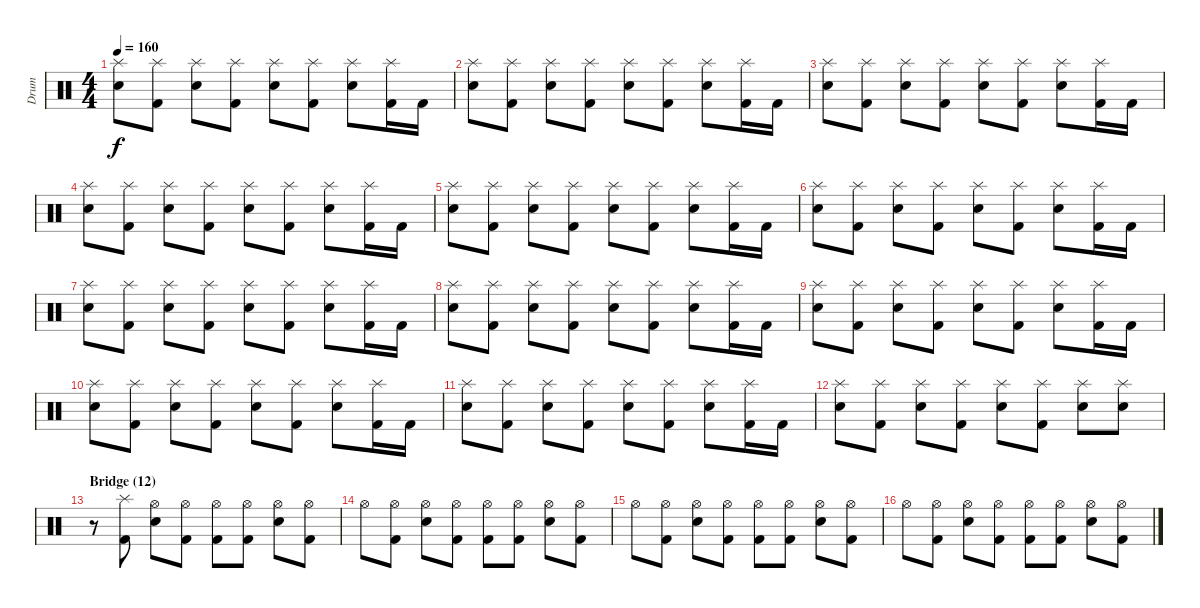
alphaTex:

\track ("Drum" "Drum") {instrument percussion}
\staff {score}
\articulation defaults
\ts (4 4)
\tempo 160
\clef neutral
\ks c
("Splash (hit)" "Snare (hit) 2").8{dy f} ("Splash (hit)" "Kick (hit) 2").8 ("Splash (hit)" "Snare (hit) 2").8 ("Splash (hit)" "Kick (hit) 2").8 ("Splash (hit)" "Snare (hit) 2").8 ("Splash (hit)" "Kick (hit) 2").8 ("Splash (hit)" "Snare (hit) 2").8 ("Splash (hit)" "Kick (hit) 2").16 "Kick (hit) 2".16 |
("Splash (hit)" "Snare (hit) 2").8 ("Splash (hit)" "Kick (hit) 2").8 ("Splash (hit)" "Snare (hit) 2").8 ("Splash (hit)" "Kick (hit) 2").8 ("Splash (hit)" "Snare (hit) 2").8 ("Splash (hit)" "Kick (hit) 2").8 ("Splash (hit)" "Snare (hit) 2").8 ("Splash (hit)" "Kick (hit) 2").16 "Kick (hit) 2".16 |
("Splash (hit)" "Snare (hit) 2").8 ("Splash (hit)" "Kick (hit) 2").8 ("Splash (hit)" "Snare (hit) 2").8 ("Splash (hit)" "Kick (hit) 2").8 ("Splash (hit)" "Snare (hit) 2").8 ("Splash (hit)" "Kick (hit) 2").8 ("Splash (hit)" "Snare (hit) 2").8 ("Splash (hit)" "Kick (hit) 2").16 "Kick (hit) 2".16 |
("Splash (hit)" "Snare (hit) 2").8 ("Splash (hit)" "Kick (hit) 2").8 ("Splash (hit)" "Snare (hit) 2").8 ("Splash (hit)" "Kick (hit) 2").8 ("Splash (hit)" "Snare (hit) 2").8 ("Splash (hit)" "Kick (hit) 2").8 ("Splash (hit)" "Snare (hit) 2").8 ("Splash (hit)" "Kick (hit) 2").16 "Kick (hit) 2".16 |
("Splash (hit)" "Snare (hit) 2").8 ("Splash (hit)" "Kick (hit) 2").8 ("Splash (hit)" "Snare (hit) 2").8 ("Splash (hit)" "Kick (hit) 2").8 ("Splash (hit)" "Snare (hit) 2").8 ("Splash (hit)" "Kick (hit) 2").8 ("Splash (hit)" "Snare (hit) 2").8 ("Splash (hit)" "Kick (hit) 2").16 "Kick (hit) 2".16 |
("Splash (hit)" "Snare (hit) 2").8 ("Splash (hit)" "Kick (hit) 2").8 ("Splash (hit)" "Snare (hit) 2").8 ("Splash (hit)" "Kick (hit) 2").8 ("Splash (hit)" "Snare (hit) 2").8 ("Splash (hit)" "Kick (hit) 2").8 ("Splash (hit)" "Snare (hit) 2").8 ("Splash (hit)" "Kick (hit) 2").16 "Kick (hit) 2".16 |
("Splash (hit)" "Snare (hit) 2").8 ("Splash (hit)" "Kick (hit) 2").8 ("Splash (hit)" "Snare (hit) 2").8 ("Splash (hit)" "Kick (hit) 2").8 ("Splash (hit)" "Snare (hit) 2").8 ("Splash (hit)" "Kick (hit) 2").8 ("Splash (hit)" "Snare (hit) 2").8 ("Splash (hit)" "Kick (hit) 2").16 "Kick (hit) 2".16 |
("Splash (hit)" "Snare (hit) 2").8 ("Splash (hit)" "Kick (hit) 2").8 ("Splash (hit)" "Snare (hit) 2").8 ("Splash (hit)" "Kick (hit) 2").8 ("Splash (hit)" "Snare (hit) 2").8 ("Splash (hit)" "Kick (hit) 2").8 ("Splash (hit)" "Snare (hit) 2").8 ("Splash (hit)" "Kick (hit) 2").16 "Kick (hit) 2".16 |
("Splash (hit)" "Snare (hit) 2").8 ("Splash (hit)" "Kick (hit) 2").8 ("Splash (hit)" "Snare (hit) 2").8 ("Splash (hit)" "Kick (hit) 2").8 ("Splash (hit)" "Snare (hit) 2").8 ("Splash (hit)" "Kick (hit) 2").8 ("Splash (hit)" "Snare (hit) 2").8 ("Splash (hit)" "Kick (hit) 2").16 "Kick (hit) 2".16 |
("Splash (hit)" "Snare (hit) 2").8 ("Splash (hit)" "Kick (hit) 2").8 ("Splash (hit)" "Snare (hit) 2").8 ("Splash (hit)" "Kick (hit) 2").8 ("Splash (hit)" "Snare (hit) 2").8 ("Splash (hit)" "Kick (hit) 2").8 ("Splash (hit)" "Snare (hit) 2").8 ("Splash (hit)" "Kick (hit) 2").16 "Kick (hit) 2".16 |
("Splash (hit)" "Snare (hit) 2").8 ("Splash (hit)" "Kick (hit) 2").8 ("Splash (hit)" "Snare (hit) 2").8 ("Splash (hit)" "Kick (hit) 2").8 ("Splash (hit)" "Snare (hit) 2").8 ("Splash (hit)" "Kick (hit) 2").8 ("Splash (hit)" "Snare (hit) 2").8 ("Splash (hit)" "Kick (hit) 2").16 "Kick (hit) 2".16 |
("Splash (hit)" "Snare (hit) 2").8 ("Splash (hit)" "Kick (hit) 2").8 ("Splash (hit)" "Snare (hit) 2").8 ("Splash (hit)" "Kick (hit) 2").8 ("Splash (hit)" "Snare (hit) 2").8 ("Splash (hit)" "Kick (hit) 2").8 ("Splash (hit)" "Snare (hit) 2").8 ("Splash (hit)" "Snare (hit) 2").8 |
\section ("" "Bridge (12)")
r.8 ("Splash (hit)" "Kick (hit) 2").8 ("Hi-Hat (open)" "Snare (hit) 2").8 ("Hi-Hat (open)" "Kick (hit) 2").8 ("Hi-Hat (open)" "Kick (hit) 2").8 ("Hi-Hat (open)" "Kick (hit) 2").8 ("Hi-Hat (open)" "Snare (hit) 2").8 ("Hi-Hat (open)" "Kick (hit) 2").8 |
"Hi-Hat (open)".8 ("Hi-Hat (open)" "Kick (hit) 2").8 ("Hi-Hat (open)" "Snare (hit) 2").8 ("Hi-Hat (open)" "Kick (hit) 2").8 ("Hi-Hat (open)" "Kick (hit) 2").8 ("Hi-Hat (open)" "Kick (hit) 2").8 ("Hi-Hat (open)" "Snare (hit) 2").8 ("Hi-Hat (open)" "Kick (hit) 2").8 |
"Hi-Hat (open)".8 ("Hi-Hat (open)" "Kick (hit) 2").8 ("Hi-Hat (open)" "Snare (hit) 2").8 ("Hi-Hat (open)" "Kick (hit) 2").8 ("Hi-Hat (open)" "Kick (hit) 2").8 ("Hi-Hat (open)" "Kick (hit) 2").8 ("Hi-Hat (open)" "Snare (hit) 2").8 ("Hi-Hat (open)" "Kick (hit) 2").8 |
"Hi-Hat (open)".8 ("Hi-Hat (open)" "Kick (hit) 2").8 ("Hi-Hat (open)" "Snare (hit) 2").8 ("Hi-Hat (open)" "Kick (hit) 2").8 ("Hi-Hat (open)" "Kick (hit) 2").8 ("Hi-Hat (open)" "Kick (hit) 2").8 ("Hi-Hat (open)" "Snare (hit) 2").8 ("Hi-Hat (open)" "Kick (hit) 2").8
